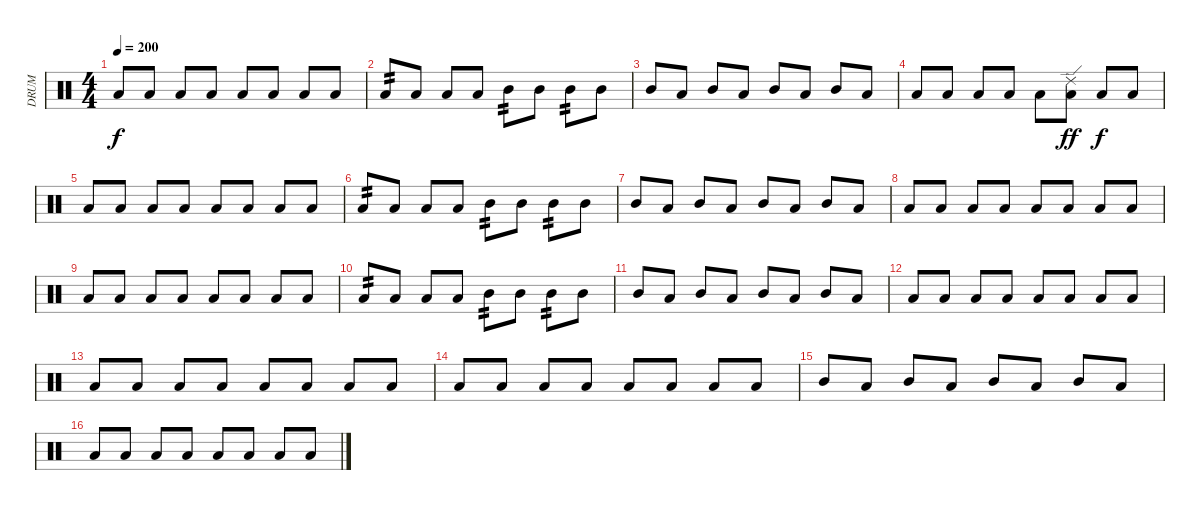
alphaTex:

\track ("DRUM" "DRUM") {instrument percussion}
\staff {score}
\articulation defaults
\ts (4 4)
\tempo 200
\clef neutral
\ks c "Low Tom (hit)".8{dy f} "Low Tom (hit)".8 "Low Tom (hit)".8 "Low Tom (hit)".8 "Low Tom (hit)".8 "Low Tom (hit)".8 "Low Tom (hit)".8 "Low Tom (hit)".8
|
"Low Tom (hit)".8{tp 2} "Low Tom (hit)".8 "Low Tom (hit)".8 "Low Tom (hit)".8 "Mid Tom (hit)".8{tp 2} "Mid Tom (hit)".8 "Mid Tom (hit)".8{tp 2} "Mid Tom (hit)".8 |
"Mid Tom (hit)".8 "Low Tom (hit)".8 "Mid Tom (hit)".8 "Low Tom (hit)".8 "Mid Tom (hit)".8 "Low Tom (hit)".8 "Mid Tom (hit)".8 "Low Tom (hit)".8 |
"Low Tom (hit)".8 "Low Floor Tom (hit)".8 "Low Tom (hit)".8 "Low Floor Tom (hit)".8 "Low Tom (hit)".8 ("Ride (edge) 2" "Low Floor Tom (hit)").8{dy ff} "Low Tom (hit)".8{dy f} "Low Floor Tom (hit)".8 |
"Low Tom (hit)".8 "Low Tom (hit)".8 "Low Tom (hit)".8 "Low Tom (hit)".8 "Low Tom (hit)".8 "Low Tom (hit)".8 "Low Tom (hit)".8 "Low Tom (hit)".8 |
"Low Tom (hit)".8{tp 2} "Low Tom (hit)".8 "Low Tom (hit)".8 "Low Tom (hit)".8 "Mid Tom (hit)".8{tp 2} "Mid Tom (hit)".8 "Mid Tom (hit)".8{tp 2} "Mid Tom (hit)".8 |
"Mid Tom (hit)".8 "Low Tom (hit)".8 "Mid Tom (hit)".8 "Low Tom (hit)".8 "Mid Tom (hit)".8 "Low Tom (hit)".8 "Mid Tom (hit)".8 "Low Tom (hit)".8 |
"Low Tom (hit)".8 "Low Floor Tom (hit)".8 "Low Tom (hit)".8 "Low Floor Tom (hit)".8 "Low Tom (hit)".8 "Low Floor Tom (hit)".8 "Low Tom (hit)".8 "Low Floor Tom (hit)".8 |
"Low Tom (hit)".8 "Low Tom (hit)".8 "Low Tom (hit)".8 "Low Tom (hit)".8 "Low Tom (hit)".8 "Low Tom (hit)".8 "Low Tom (hit)".8 "Low Tom (hit)".8 |
"Low Tom (hit)".8{tp 2} "Low Tom (hit)".8 "Low Tom (hit)".8 "Low Tom (hit)".8 "Mid Tom (hit)".8{tp 2} "Mid Tom (hit)".8 "Mid Tom (hit)".8{tp 2} "Mid Tom (hit)".8 |
"Mid Tom (hit)".8 "Low Tom (hit)".8 "Mid Tom (hit)".8 "Low Tom (hit)".8 "Mid Tom (hit)".8 "Low Tom (hit)".8 "Mid Tom (hit)".8 "Low Tom (hit)".8 |
"Low Tom (hit)".8 "Low Tom (hit)".8 "Low Tom (hit)".8 "Low Tom (hit)".8 "Low Tom (hit)".8 "Low Tom (hit)".8 "Low Tom (hit)".8 "Low Tom (hit)".8 |
"Low Tom (hit)".8 "Low Floor Tom (hit)".8 "Low Tom (hit)".8 "Low Floor Tom (hit)".8 "Low Tom (hit)".8 "Low Floor Tom (hit)".8 "Low Tom (hit)".8 "Low Floor Tom (hit)".8 |
"Low Tom (hit)".8 "Low Tom (hit)".8 "Low Tom (hit)".8 "Low Tom (hit)".8 "Low Tom (hit)".8 "Low Tom (hit)".8 "Low Tom (hit)".8 "Low Tom (hit)".8 |
"Mid Tom (hit)".8 "Low Tom (hit)".8 "Mid Tom (hit)".8 "Low Tom (hit)".8 "Mid Tom (hit)".8 "Low Tom (hit)".8 "Mid Tom (hit)".8 "Low Tom (hit)".8 |
"Low Tom (hit)".8 "Low Tom (hit)".8 "Low Tom (hit)".8 "Low Tom (hit)".8 "Low Tom (hit)".8 "Low Tom (hit)".8 "Low Tom (hit)".8 "Low Tom (hit)".8
